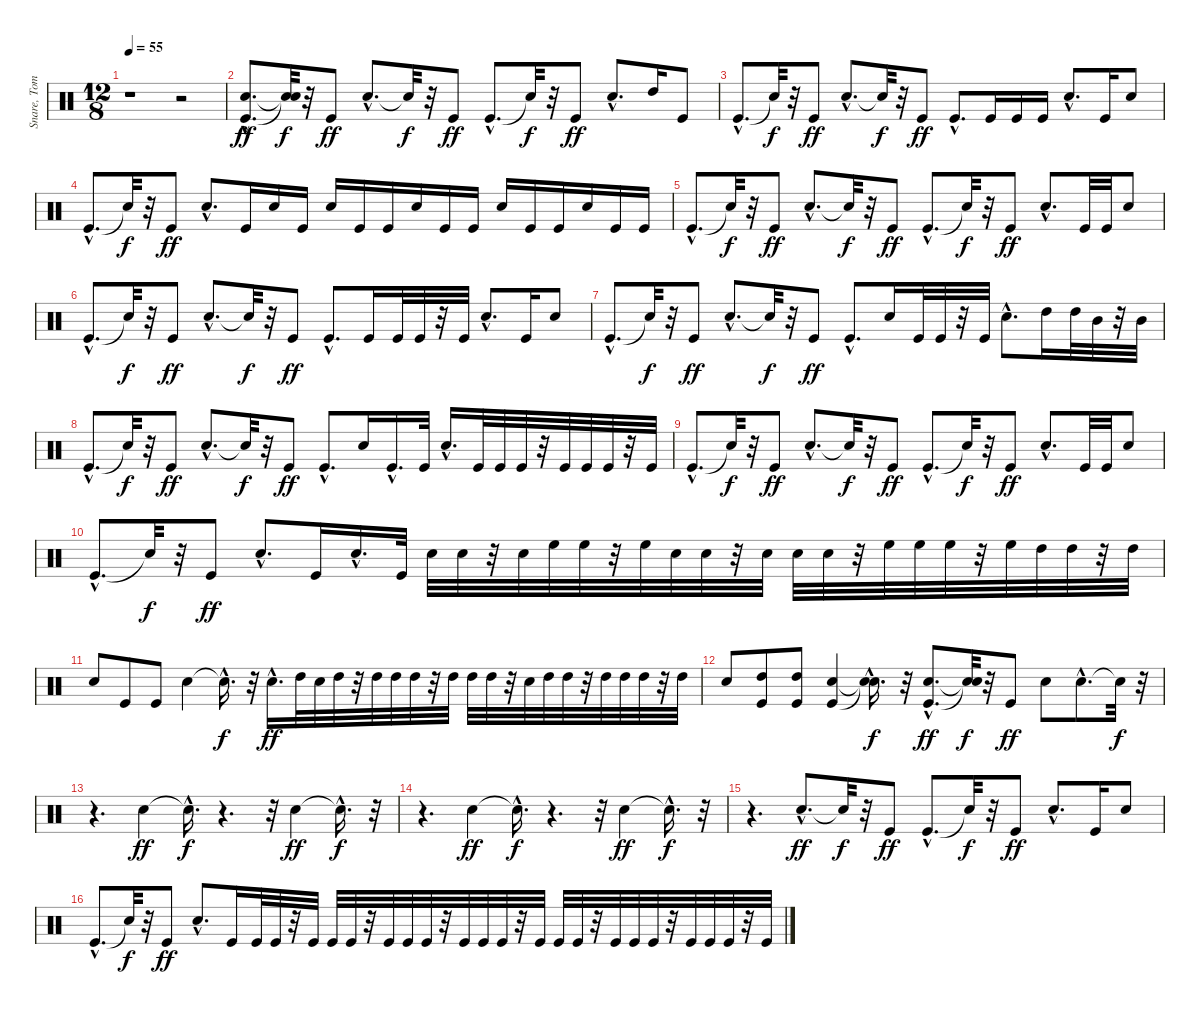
\track ("Snare, Toms, Bass drum" "Snare, Tom") {instrument percussion}
\staff {score}
\articulation defaults
\ts (12 8)
\tempo 55
\clef neutral
\ks c
r.1{dy ff} r.2 |
("Kick (hit)"{hac} "Snare (hit) 2"{hac}).8{d} ("Snare (hit)"{t} "Snare (hit)"{t}).32{dy f} r.32 "Kick (hit)".8{dy ff} "Snare (hit) 2"{hac}.8{d} "Snare (hit)"{t}.32{dy f} r.32 "Kick (hit)".8{dy ff} "Kick (hit)"{hac}.8{d} "Snare (hit)"{t}.32{dy f} r.32 "Kick (hit)".8{dy ff} "Snare (hit) 2"{hac}.8{d} "High Tom (hit)".16 "Kick (hit)".8 |
"Kick (hit)"{hac}.8{d} "Snare (hit)"{t}.32{dy f} r.32 "Kick (hit)".8{dy ff} "Snare (hit) 2"{hac}.8{d} "Snare (hit)"{t}.32{dy f} r.32 "Kick (hit)".8{dy ff} "Kick (hit)"{hac}.8{d} "Kick (hit)".16 "Kick (hit)".16 "Kick (hit)".16 "Snare (hit) 2"{hac}.8{d} "Kick (hit)".16 "Snare (hit) 2".8 |
"Kick (hit)"{hac}.8{d} "Snare (hit)"{t}.32{dy f} r.32 "Kick (hit)".8{dy ff} "Snare (hit) 2"{hac}.8{d} "Kick (hit)".16 "Snare (hit) 2".16 "Kick (hit)".16 "Snare (hit) 2".16 "Kick (hit)".16 "Kick (hit)".16 "Snare (hit) 2".16 "Kick (hit)".16 "Kick (hit)".16 "Snare (hit) 2".16 "Kick (hit)".16 "Kick (hit)".16 "Snare (hit) 2".16 "Kick (hit)".16 "Kick (hit)".16 |
"Kick (hit)"{hac}.8{d} "Snare (hit)"{t}.32{dy f} r.32 "Kick (hit)".8{dy ff} "Snare (hit) 2"{hac}.8{d} "Snare (hit)"{t}.32{dy f} r.32 "Kick (hit)".8{dy ff} "Kick (hit)"{hac}.8{d} "Snare (hit)"{t}.32{dy f} r.32 "Kick (hit)".8{dy ff} "Snare (hit) 2"{hac}.8{d} "Kick (hit)".32 "Kick (hit)".32 "Snare (hit) 2".8 |
"Kick (hit)"{hac}.8{d} "Snare (hit)"{t}.32{dy f} r.32 "Kick (hit)".8{dy ff} "Snare (hit) 2"{hac}.8{d} "Snare (hit)"{t}.32{dy f} r.32 "Kick (hit)".8{dy ff} "Kick (hit)"{hac}.8{d} "Kick (hit)".16 "Kick (hit)".32 "Kick (hit)".32 r.32 "Kick (hit)".32 "Snare (hit) 2"{hac}.8{d} "Kick (hit)".16 "Snare (hit) 2".8 |
"Kick (hit)"{hac}.8{d} "Snare (hit)"{t}.32{dy f} r.32 "Kick (hit)".8{dy ff} "Snare (hit) 2"{hac}.8{d} "Snare (hit)"{t}.32{dy f} r.32 "Kick (hit)".8{dy ff} "Kick (hit)"{hac}.8{d} "Snare (hit) 2".16 "Kick (hit)".32 "Kick (hit)".32 r.32 "Kick (hit)".32 "Snare (hit) 2"{hac}.8{d} "High Tom (hit)".16 "High Tom (hit)".32 "Mid Tom (hit)".32 r.32 "Mid Tom (hit)".32 |
"Kick (hit)"{hac}.8{d} "Snare (hit)"{t}.32{dy f} r.32 "Kick (hit)".8{dy ff} "Snare (hit) 2"{hac}.8{d} "Snare (hit)"{t}.32{dy f} r.32 "Kick (hit)".8{dy ff} "Kick (hit)"{hac}.8{d} "Snare (hit) 2".16 "Kick (hit)"{hac}.16{d} "Kick (hit)".32 "Snare (hit) 2"{hac}.16{d} "Kick (hit)".32 "Kick (hit)".32 "Kick (hit)".32 r.32 "Kick (hit)".32 "Kick (hit)".32 "Kick (hit)".32 r.32 "Kick (hit)".32 |
"Kick (hit)"{hac}.8{d} "Snare (hit)"{t}.32{dy f} r.32 "Kick (hit)".8{dy ff} "Snare (hit) 2"{hac}.8{d} "Snare (hit)"{t}.32{dy f} r.32 "Kick (hit)".8{dy ff} "Kick (hit)"{hac}.8{d} "Snare (hit)"{t}.32{dy f} r.32 "Kick (hit)".8{dy ff} "Snare (hit) 2"{hac}.8{d} "Kick (hit)".32 "Kick (hit)".32 "Snare (hit) 2".8 |
"Kick (hit)"{hac}.8{d} "Snare (hit)"{t}.32{dy f} r.32 "Kick (hit)".8{dy ff} "Snare (hit) 2"{hac}.8{d} "Kick (hit)".16 "Snare (hit) 2"{hac}.16{d} "Kick (hit)".32 "Snare (hit) 2".32 "Snare (hit) 2".32 r.32 "Snare (hit) 2".32 "High Floor Tom (hit)".32 "High Floor Tom (hit)".32 r.32 "High Floor Tom (hit)".32 "Snare (hit) 2".32 "Snare (hit) 2".32 r.32 "Snare (hit) 2".32 "Snare (hit) 2".32 "Snare (hit) 2".32 r.32 "High Floor Tom (hit)".32 "High Floor Tom (hit)".32 "High Floor Tom (hit)".32 r.32 "High Floor Tom (hit)".32 "High Tom (hit)".32 "High Tom (hit)".32 r.32 "High Tom (hit)".32 |
"Snare (hit) 2".8 "Kick (hit)".8 "Kick (hit)".8 "Snare (hit) 2".4 "Snare (hit)"{hac t}.16{d dy f} r.32 "Snare (hit) 2"{hac}.16{d dy ff} "High Tom (hit)".32 "Snare (hit) 2".32 "High Tom (hit)".32 r.32 "High Tom (hit)".32 "High Tom (hit)".32 "High Tom (hit)".32 r.32 "High Tom (hit)".32 "High Tom (hit)".32 "High Tom (hit)".32 r.32 "Snare (hit) 2".32 "High Tom (hit)".32 "High Tom (hit)".32 r.32 "High Tom (hit)".32 "High Tom (hit)".32 "High Tom (hit)".32 r.32 "High Tom (hit)".32 |
"Snare (hit) 2".8 ("Kick (hit)" "High Tom (hit)").8 ("Kick (hit)" "High Tom (hit)").8 ("Kick (hit)" "Snare (hit) 2").4 ("Snare (hit)"{hac t} "Snare (hit)"{hac t}).16{d dy f} r.32 ("Kick (hit)"{hac} "Snare (hit) 2"{hac}).8{d dy ff} ("Snare (hit)"{t} "Snare (hit)"{t}).32{dy f} r.32 "Kick (hit)".8{dy ff} "Snare (hit) 2".8 "Snare (hit) 2"{hac}.8{d} "Snare (hit)"{t}.32{dy f} r.32 |
r.4{d} "Snare (hit) 2".4{dy ff} "Snare (hit)"{hac t}.16{d dy f} r.4{d} r.32 "Snare (hit) 2".4{dy ff} "Snare (hit)"{hac t}.16{d dy f} r.32 |
r.4{d} "Snare (hit) 2".4{dy ff} "Snare (hit)"{hac t}.16{d dy f} r.4{d} r.32 "Snare (hit) 2".4{dy ff} "Snare (hit)"{hac t}.16{d dy f} r.32 |
r.4{d} "Snare (hit) 2"{hac}.8{d dy ff} "Snare (hit)"{t}.32{dy f} r.32 "Kick (hit)".8{dy ff} "Kick (hit)"{hac}.8{d} "Snare (hit)"{t}.32{dy f} r.32 "Kick (hit)".8{dy ff} "Snare (hit) 2"{hac}.8{d} "Kick (hit)".16 "Snare (hit) 2".8 |
"Kick (hit)"{hac}.8{d} "Snare (hit)"{t}.32{dy f} r.32 "Kick (hit)".8{dy ff} "Snare (hit) 2"{hac}.8{d} "Kick (hit)".16 "Kick (hit)".32 "Kick (hit)".32 r.32 "Kick (hit)".32 "Kick (hit)".32 "Kick (hit)".32 r.32 "Kick (hit)".32 "Kick (hit)".32 "Kick (hit)".32 r.32 "Kick (hit)".32 "Kick (hit)".32 "Kick (hit)".32 r.32 "Kick (hit)".32 "Kick (hit)".32 "Kick (hit)".32 r.32 "Kick (hit)".32 "Kick (hit)".32 "Kick (hit)".32 r.32 "Kick (hit)".32 "Kick (hit)".32 "Kick (hit)".32 r.32 "Kick (hit)".32
